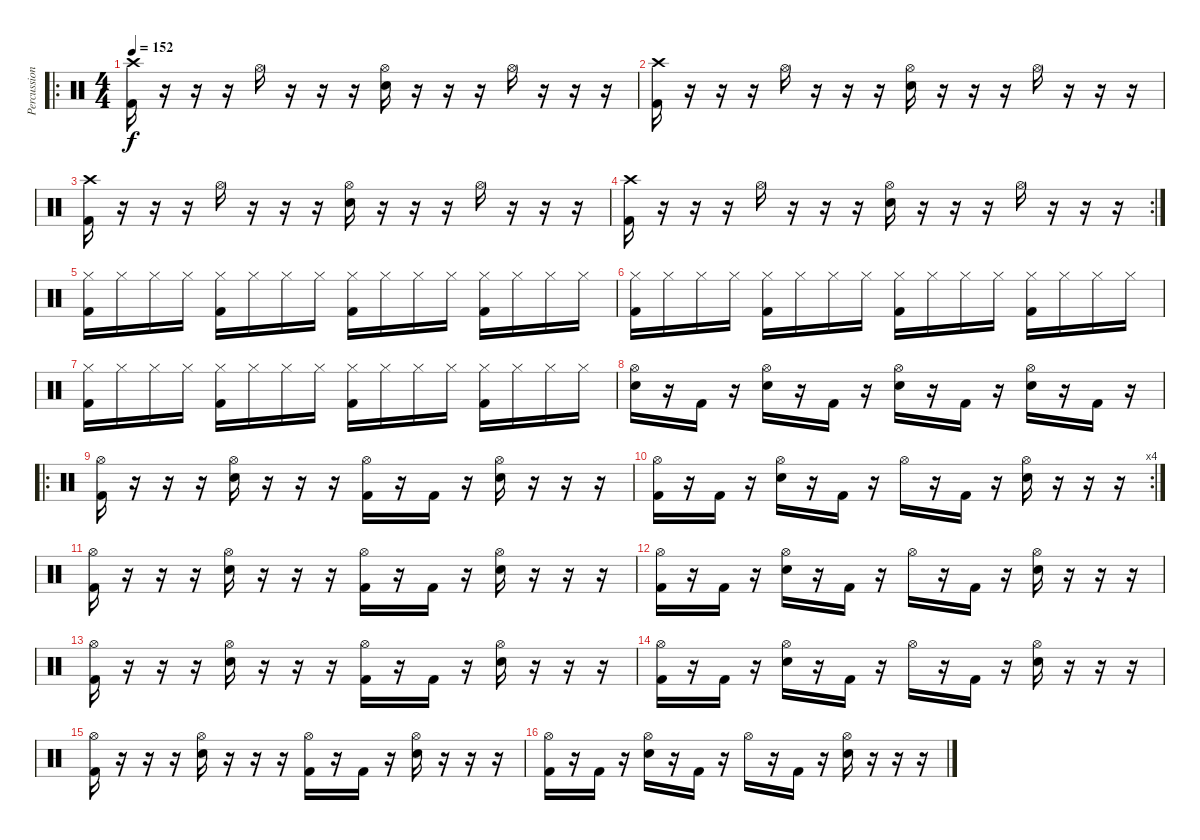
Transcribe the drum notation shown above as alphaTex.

\track ("Percussions" "Percussion") {instrument percussion}
\staff {score}
\articulation defaults
\ro
\ts (4 4)
\tempo 152
\clef neutral
\ks c
("Kick (hit) 2" "Crash high (hit)").16{dy f} r.16 r.16 r.16 "Hi-Hat (open)".16 r.16 r.16 r.16 ("Electric Snare (hit)" "Hi-Hat (open)").16 r.16 r.16 r.16 "Hi-Hat (open)".16 r.16 r.16 r.16 |
("Kick (hit) 2" "Crash high (hit)").16 r.16 r.16 r.16 "Hi-Hat (open)".16 r.16 r.16 r.16 ("Electric Snare (hit)" "Hi-Hat (open)").16 r.16 r.16 r.16 "Hi-Hat (open)".16 r.16 r.16 r.16 |
("Kick (hit) 2" "Crash high (hit)").16 r.16 r.16 r.16 "Hi-Hat (open)".16 r.16 r.16 r.16 ("Electric Snare (hit)" "Hi-Hat (open)").16 r.16 r.16 r.16 "Hi-Hat (open)".16 r.16 r.16 r.16 |
\rc 2
("Kick (hit) 2" "Crash high (hit)").16 r.16 r.16 r.16 "Hi-Hat (open)".16 r.16 r.16 r.16 ("Electric Snare (hit)" "Hi-Hat (open)").16 r.16 r.16 r.16 "Hi-Hat (open)".16 r.16 r.16 r.16 |
("Kick (hit) 2" "Hi-Hat (closed)").16 "Hi-Hat (closed)".16 "Hi-Hat (closed)".16 "Hi-Hat (closed)".16 ("Kick (hit) 2" "Hi-Hat (closed)").16 "Hi-Hat (closed)".16 "Hi-Hat (closed)".16 "Hi-Hat (closed)".16 ("Kick (hit) 2" "Hi-Hat (closed)").16 "Hi-Hat (closed)".16 "Hi-Hat (closed)".16 "Hi-Hat (closed)".16 ("Kick (hit) 2" "Hi-Hat (closed)").16 "Hi-Hat (closed)".16 "Hi-Hat (closed)".16 "Hi-Hat (closed)".16 |
("Kick (hit) 2" "Hi-Hat (closed)").16 "Hi-Hat (closed)".16 "Hi-Hat (closed)".16 "Hi-Hat (closed)".16 ("Kick (hit) 2" "Hi-Hat (closed)").16 "Hi-Hat (closed)".16 "Hi-Hat (closed)".16 "Hi-Hat (closed)".16 ("Kick (hit) 2" "Hi-Hat (closed)").16 "Hi-Hat (closed)".16 "Hi-Hat (closed)".16 "Hi-Hat (closed)".16 ("Kick (hit) 2" "Hi-Hat (closed)").16 "Hi-Hat (closed)".16 "Hi-Hat (closed)".16 "Hi-Hat (closed)".16 |
("Kick (hit) 2" "Hi-Hat (closed)").16 "Hi-Hat (closed)".16 "Hi-Hat (closed)".16 "Hi-Hat (closed)".16 ("Kick (hit) 2" "Hi-Hat (closed)").16 "Hi-Hat (closed)".16 "Hi-Hat (closed)".16 "Hi-Hat (closed)".16 ("Kick (hit) 2" "Hi-Hat (closed)").16 "Hi-Hat (closed)".16 "Hi-Hat (closed)".16 "Hi-Hat (closed)".16 ("Kick (hit) 2" "Hi-Hat (closed)").16 "Hi-Hat (closed)".16 "Hi-Hat (closed)".16 "Hi-Hat (closed)".16 |
("Hi-Hat (open)" "Electric Snare (hit)").16 r.16 "Kick (hit) 2".16 r.16 ("Hi-Hat (open)" "Electric Snare (hit)").16 r.16 "Kick (hit) 2".16 r.16 ("Hi-Hat (open)" "Electric Snare (hit)").16 r.16 "Kick (hit) 2".16 r.16 ("Hi-Hat (open)" "Electric Snare (hit)").16 r.16 "Kick (hit) 2".16 r.16 |
\ro
("Kick (hit) 2" "Hi-Hat (open)").16 r.16 r.16 r.16 ("Electric Snare (hit)" "Hi-Hat (open)").16 r.16 r.16 r.16 ("Kick (hit) 2" "Hi-Hat (open)").16 r.16 "Kick (hit) 2".16 r.16 ("Electric Snare (hit)" "Hi-Hat (open)").16 r.16 r.16 r.16 |
\rc 4
("Kick (hit) 2" "Hi-Hat (open)").16 r.16 "Kick (hit) 2".16 r.16 ("Electric Snare (hit)" "Hi-Hat (open)").16 r.16 "Kick (hit) 2".16 r.16 "Hi-Hat (open)".16 r.16 "Kick (hit) 2".16 r.16 ("Electric Snare (hit)" "Hi-Hat (open)").16 r.16 r.16 r.16 |
("Kick (hit) 2" "Hi-Hat (open)").16 r.16 r.16 r.16 ("Electric Snare (hit)" "Hi-Hat (open)").16 r.16 r.16 r.16 ("Kick (hit) 2" "Hi-Hat (open)").16 r.16 "Kick (hit) 2".16 r.16 ("Electric Snare (hit)" "Hi-Hat (open)").16 r.16 r.16 r.16 |
("Kick (hit) 2" "Hi-Hat (open)").16 r.16 "Kick (hit) 2".16 r.16 ("Electric Snare (hit)" "Hi-Hat (open)").16 r.16 "Kick (hit) 2".16 r.16 "Hi-Hat (open)".16 r.16 "Kick (hit) 2".16 r.16 ("Electric Snare (hit)" "Hi-Hat (open)").16 r.16 r.16 r.16 |
("Kick (hit) 2" "Hi-Hat (open)").16 r.16 r.16 r.16 ("Electric Snare (hit)" "Hi-Hat (open)").16 r.16 r.16 r.16 ("Kick (hit) 2" "Hi-Hat (open)").16 r.16 "Kick (hit) 2".16 r.16 ("Electric Snare (hit)" "Hi-Hat (open)").16 r.16 r.16 r.16 |
("Kick (hit) 2" "Hi-Hat (open)").16 r.16 "Kick (hit) 2".16 r.16 ("Electric Snare (hit)" "Hi-Hat (open)").16 r.16 "Kick (hit) 2".16 r.16 "Hi-Hat (open)".16 r.16 "Kick (hit) 2".16 r.16 ("Electric Snare (hit)" "Hi-Hat (open)").16 r.16 r.16 r.16 |
("Kick (hit) 2" "Hi-Hat (open)").16 r.16 r.16 r.16 ("Electric Snare (hit)" "Hi-Hat (open)").16 r.16 r.16 r.16 ("Kick (hit) 2" "Hi-Hat (open)").16 r.16 "Kick (hit) 2".16 r.16 ("Electric Snare (hit)" "Hi-Hat (open)").16 r.16 r.16 r.16 |
("Kick (hit) 2" "Hi-Hat (open)").16 r.16 "Kick (hit) 2".16 r.16 ("Electric Snare (hit)" "Hi-Hat (open)").16 r.16 "Kick (hit) 2".16 r.16 "Hi-Hat (open)".16 r.16 "Kick (hit) 2".16 r.16 ("Electric Snare (hit)" "Hi-Hat (open)").16 r.16 r.16 r.16
